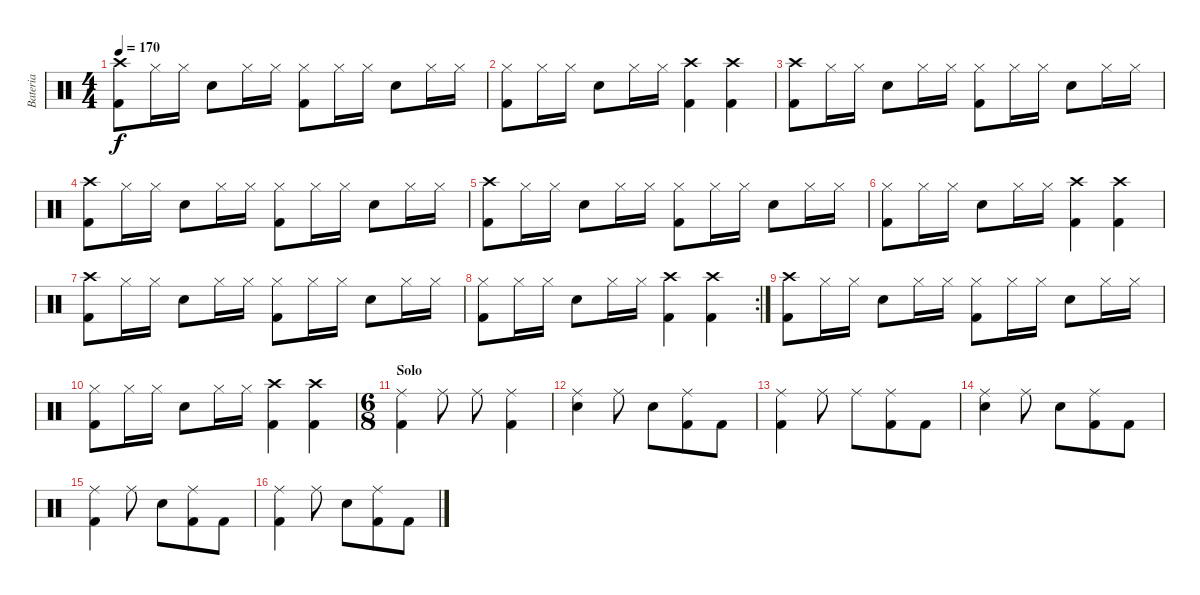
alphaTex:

\track ("Bateria" "Bateria") {instrument percussion}
\staff {score}
\articulation defaults
\ts (4 4)
\tempo 170
\clef neutral
\ks c
("Crash high (hit)" "Kick (hit) 2").8{dy f} "Hi-Hat (closed)".16 "Hi-Hat (closed)".16 "Snare (hit) 2".8 "Hi-Hat (closed)".16 "Hi-Hat (closed)".16 ("Hi-Hat (closed)" "Kick (hit) 2").8 "Hi-Hat (closed)".16 "Hi-Hat (closed)".16 "Snare (hit) 2".8 "Hi-Hat (closed)".16 "Hi-Hat (closed)".16 |
("Hi-Hat (closed)" "Kick (hit) 2").8 "Hi-Hat (closed)".16 "Hi-Hat (closed)".16 "Snare (hit) 2".8 "Hi-Hat (closed)".16 "Hi-Hat (closed)".16 ("Crash high (hit)" "Kick (hit) 2").4 ("Crash high (hit)" "Kick (hit) 2").4 |
("Crash high (hit)" "Kick (hit) 2").8 "Hi-Hat (closed)".16 "Hi-Hat (closed)".16 "Snare (hit) 2".8 "Hi-Hat (closed)".16 "Hi-Hat (closed)".16 ("Hi-Hat (closed)" "Kick (hit) 2").8 "Hi-Hat (closed)".16 "Hi-Hat (closed)".16 "Snare (hit) 2".8 "Hi-Hat (closed)".16 "Hi-Hat (closed)".16 |
("Crash high (hit)" "Kick (hit) 2").8 "Hi-Hat (closed)".16 "Hi-Hat (closed)".16 "Snare (hit) 2".8 "Hi-Hat (closed)".16 "Hi-Hat (closed)".16 ("Hi-Hat (closed)" "Kick (hit) 2").8 "Hi-Hat (closed)".16 "Hi-Hat (closed)".16 "Snare (hit) 2".8 "Hi-Hat (closed)".16 "Hi-Hat (closed)".16 |
("Crash high (hit)" "Kick (hit) 2").8 "Hi-Hat (closed)".16 "Hi-Hat (closed)".16 "Snare (hit) 2".8 "Hi-Hat (closed)".16 "Hi-Hat (closed)".16 ("Hi-Hat (closed)" "Kick (hit) 2").8 "Hi-Hat (closed)".16 "Hi-Hat (closed)".16 "Snare (hit) 2".8 "Hi-Hat (closed)".16 "Hi-Hat (closed)".16 |
("Hi-Hat (closed)" "Kick (hit) 2").8 "Hi-Hat (closed)".16 "Hi-Hat (closed)".16 "Snare (hit) 2".8 "Hi-Hat (closed)".16 "Hi-Hat (closed)".16 ("Crash high (hit)" "Kick (hit) 2").4 ("Crash high (hit)" "Kick (hit) 2").4 |
("Crash high (hit)" "Kick (hit) 2").8 "Hi-Hat (closed)".16 "Hi-Hat (closed)".16 "Snare (hit) 2".8 "Hi-Hat (closed)".16 "Hi-Hat (closed)".16 ("Hi-Hat (closed)" "Kick (hit) 2").8 "Hi-Hat (closed)".16 "Hi-Hat (closed)".16 "Snare (hit) 2".8 "Hi-Hat (closed)".16 "Hi-Hat (closed)".16 |
\rc 2
("Hi-Hat (closed)" "Kick (hit) 2").8 "Hi-Hat (closed)".16 "Hi-Hat (closed)".16 "Snare (hit) 2".8 "Hi-Hat (closed)".16 "Hi-Hat (closed)".16 ("Crash high (hit)" "Kick (hit) 2").4 ("Crash high (hit)" "Kick (hit) 2").4 |
("Crash high (hit)" "Kick (hit) 2").8 "Hi-Hat (closed)".16 "Hi-Hat (closed)".16 "Snare (hit) 2".8 "Hi-Hat (closed)".16 "Hi-Hat (closed)".16 ("Hi-Hat (closed)" "Kick (hit) 2").8 "Hi-Hat (closed)".16 "Hi-Hat (closed)".16 "Snare (hit) 2".8 "Hi-Hat (closed)".16 "Hi-Hat (closed)".16 |
("Hi-Hat (closed)" "Kick (hit) 2").8 "Hi-Hat (closed)".16 "Hi-Hat (closed)".16 "Snare (hit) 2".8 "Hi-Hat (closed)".16 "Hi-Hat (closed)".16 ("Crash high (hit)" "Kick (hit) 2").4 ("Crash high (hit)" "Kick (hit) 2").4 |
\ts (6 8)
\section ("" "Solo")
("Ride (middle)" "Kick (hit) 2").4 "Ride (middle)".8 "Ride (middle)".8 ("Ride (middle)" "Kick (hit) 2").4 |
("Ride (middle)" "Snare (hit) 2").4 "Ride (middle)".8 "Snare (hit) 2".8 ("Ride (middle)" "Kick (hit) 2").8 "Kick (hit) 2".8 |
("Ride (middle)" "Kick (hit) 2").4 "Ride (middle)".8 "Ride (middle)".8 ("Ride (middle)" "Kick (hit) 2").8 "Kick (hit) 2".8 |
("Ride (middle)" "Snare (hit) 2").4 "Ride (middle)".8 "Snare (hit) 2".8 ("Ride (middle)" "Kick (hit) 2").8 "Kick (hit) 2".8 |
("Ride (middle)" "Kick (hit) 2").4 "Ride (middle)".8 "Snare (hit) 2".8 ("Ride (middle)" "Kick (hit) 2").8 "Kick (hit) 2".8 |
("Ride (middle)" "Kick (hit) 2").4 "Ride (middle)".8 "Snare (hit) 2".8 ("Ride (middle)" "Kick (hit) 2").8 "Kick (hit) 2".8
